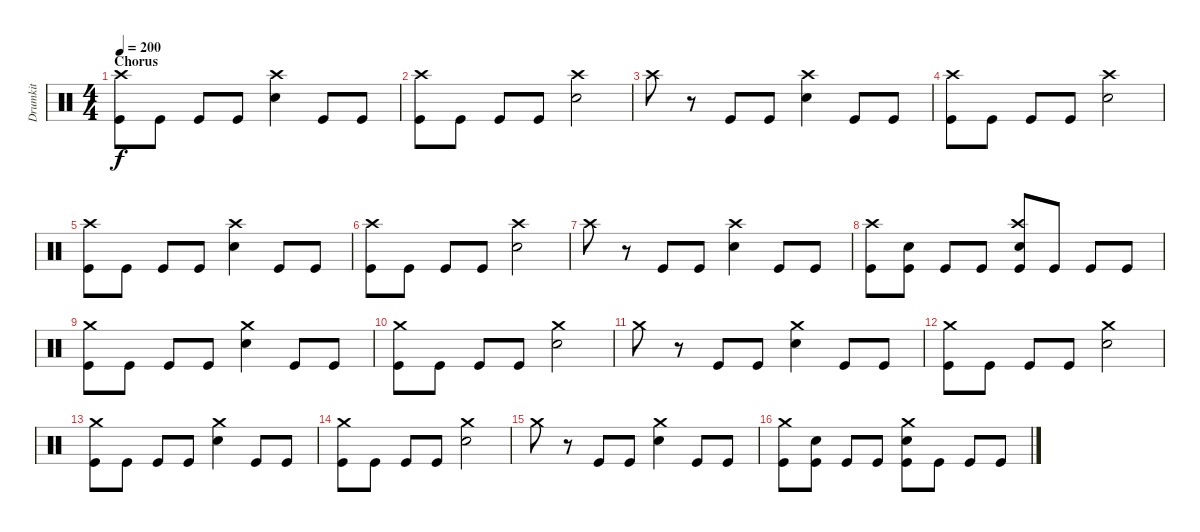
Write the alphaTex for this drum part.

\track ("Drumkit" "Drumkit") {instrument percussion}
\staff {score}
\articulation defaults
\ts (4 4)
\section ("" "Chorus")
\tempo 200
\clef neutral
\ks c
("Kick (hit)" "Crash high (hit)").8{dy f} "Kick (hit)".8 "Kick (hit)".8 "Kick (hit)".8 ("Snare (hit) 2" "Crash high (hit)").4 "Kick (hit)".8 "Kick (hit)".8 |
("Kick (hit)" "Crash high (hit)").8 "Kick (hit)".8 "Kick (hit)".8 "Kick (hit)".8 ("Snare (hit) 2" "Crash high (hit)").2 |
"Crash high (hit)".8 r.8 "Kick (hit)".8 "Kick (hit)".8 ("Snare (hit) 2" "Crash high (hit)").4 "Kick (hit)".8 "Kick (hit)".8 |
("Kick (hit)" "Crash high (hit)").8 "Kick (hit)".8 "Kick (hit)".8 "Kick (hit)".8 ("Snare (hit) 2" "Crash high (hit)").2 |
("Kick (hit)" "Crash high (hit)").8 "Kick (hit)".8 "Kick (hit)".8 "Kick (hit)".8 ("Snare (hit) 2" "Crash high (hit)").4 "Kick (hit)".8 "Kick (hit)".8 |
("Kick (hit)" "Crash high (hit)").8 "Kick (hit)".8 "Kick (hit)".8 "Kick (hit)".8 ("Snare (hit) 2" "Crash high (hit)").2 |
"Crash high (hit)".8 r.8 "Kick (hit)".8 "Kick (hit)".8 ("Snare (hit) 2" "Crash high (hit)").4 "Kick (hit)".8 "Kick (hit)".8 |
("Kick (hit)" "Crash high (hit)").8 ("Kick (hit)" "Snare (hit) 2").8 "Kick (hit)".8 "Kick (hit)".8 ("Snare (hit) 2" "Crash high (hit)" "Kick (hit)").8 "Kick (hit)".8 "Kick (hit)".8 "Kick (hit)".8 |
("Kick (hit)" "Crash medium (hit)").8 "Kick (hit)".8 "Kick (hit)".8 "Kick (hit)".8 ("Snare (hit) 2" "Crash medium (hit)").4 "Kick (hit)".8 "Kick (hit)".8 |
("Kick (hit)" "Crash medium (hit)").8 "Kick (hit)".8 "Kick (hit)".8 "Kick (hit)".8 ("Snare (hit) 2" "Crash medium (hit)").2 |
"Crash medium (hit)".8 r.8 "Kick (hit)".8 "Kick (hit)".8 ("Snare (hit) 2" "Crash medium (hit)").4 "Kick (hit)".8 "Kick (hit)".8 |
("Kick (hit)" "Crash medium (hit)").8 "Kick (hit)".8 "Kick (hit)".8 "Kick (hit)".8 ("Snare (hit) 2" "Crash medium (hit)").2 |
("Kick (hit)" "Crash medium (hit)").8 "Kick (hit)".8 "Kick (hit)".8 "Kick (hit)".8 ("Snare (hit) 2" "Crash medium (hit)").4 "Kick (hit)".8 "Kick (hit)".8 |
("Kick (hit)" "Crash medium (hit)").8 "Kick (hit)".8 "Kick (hit)".8 "Kick (hit)".8 ("Snare (hit) 2" "Crash medium (hit)").2 |
"Crash medium (hit)".8 r.8 "Kick (hit)".8 "Kick (hit)".8 ("Snare (hit) 2" "Crash medium (hit)").4 "Kick (hit)".8 "Kick (hit)".8 |
("Kick (hit)" "Crash medium (hit)").8 ("Kick (hit)" "Snare (hit) 2").8 "Kick (hit)".8 "Kick (hit)".8 ("Snare (hit) 2" "Kick (hit)" "Crash medium (hit)").8 "Kick (hit)".8 "Kick (hit)".8 "Kick (hit)".8
